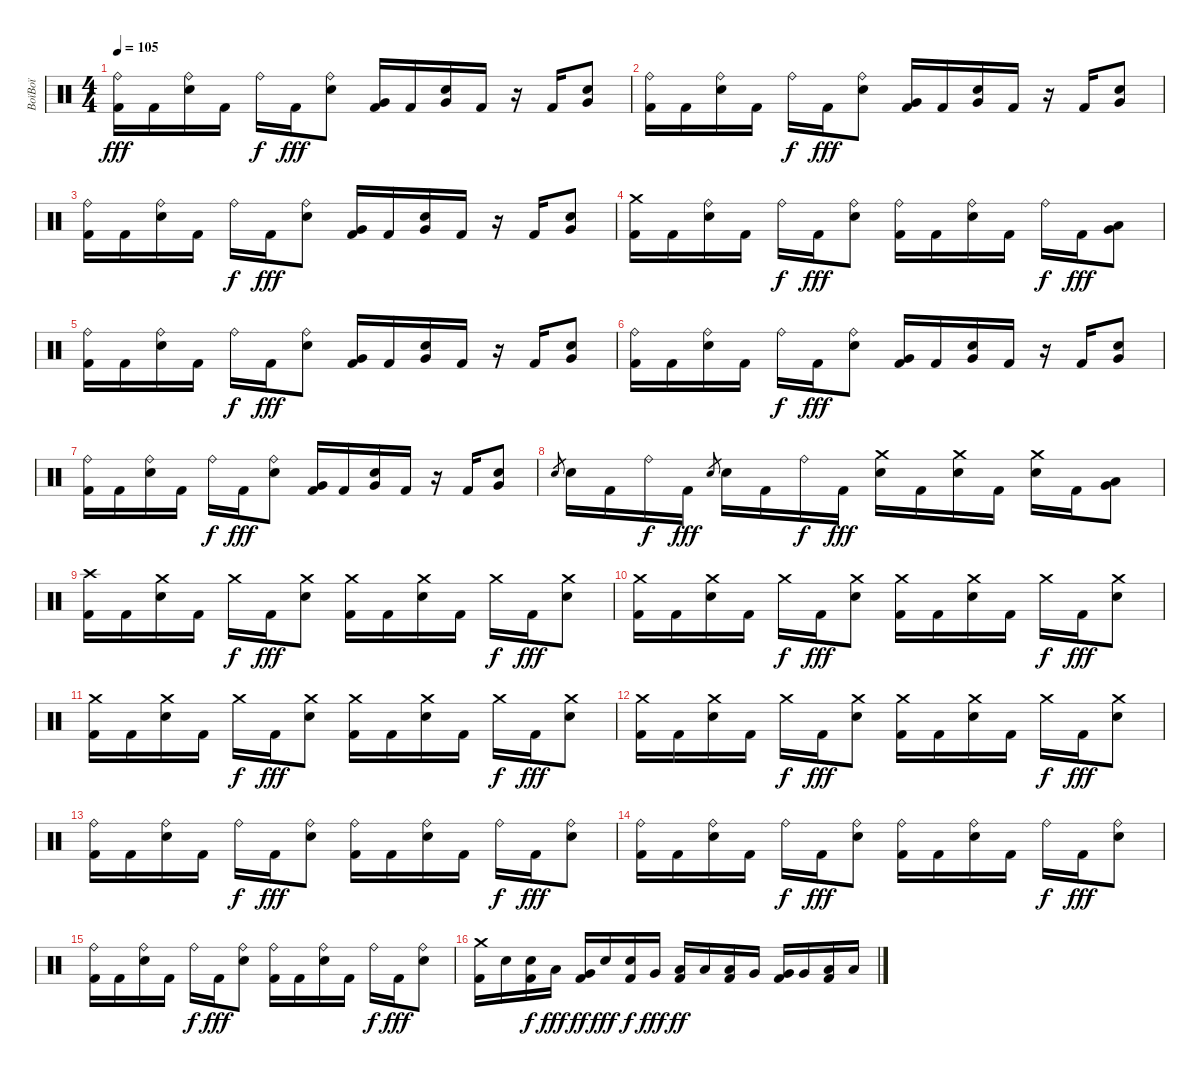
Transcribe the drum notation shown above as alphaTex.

\track ("BoïBoï" "BoïBoï") {instrument percussion}
\staff {score}
\articulation defaults
\ts (4 4)
\tempo 105
\clef neutral
\ks c
("Ride (bell)" "Kick (hit) 2").16{dy fff} "Kick (hit) 2".16 ("Ride (bell)" "Electric Snare (hit)").16 "Kick (hit) 2".16 "Ride (bell)".16{dy f} "Kick (hit) 2".16{dy fff} ("Ride (bell)" "Electric Snare (hit)").8 ("Very Low Tom (hit)" "Kick (hit) 2").16 "Kick (hit) 2".16 ("Electric Snare (hit)" "Very Low Tom (hit)").16 "Kick (hit) 2".16 r.16 "Kick (hit) 2".16 ("Electric Snare (hit)" "Very Low Tom (hit)").8 |
("Ride (bell)" "Kick (hit) 2").16 "Kick (hit) 2".16 ("Ride (bell)" "Electric Snare (hit)").16 "Kick (hit) 2".16 "Ride (bell)".16{dy f} "Kick (hit) 2".16{dy fff} ("Ride (bell)" "Electric Snare (hit)").8 ("Very Low Tom (hit)" "Kick (hit) 2").16 "Kick (hit) 2".16 ("Electric Snare (hit)" "Very Low Tom (hit)").16 "Kick (hit) 2".16 r.16 "Kick (hit) 2".16 ("Electric Snare (hit)" "Very Low Tom (hit)").8 |
("Ride (bell)" "Kick (hit) 2").16 "Kick (hit) 2".16 ("Ride (bell)" "Electric Snare (hit)").16 "Kick (hit) 2".16 "Ride (bell)".16{dy f} "Kick (hit) 2".16{dy fff} ("Ride (bell)" "Electric Snare (hit)").8 ("Very Low Tom (hit)" "Kick (hit) 2").16 "Kick (hit) 2".16 ("Electric Snare (hit)" "Very Low Tom (hit)").16 "Kick (hit) 2".16 r.16 "Kick (hit) 2".16 ("Electric Snare (hit)" "Very Low Tom (hit)").8 |
("Crash medium (hit)" "Kick (hit) 2").16 "Kick (hit) 2".16 ("Ride (bell)" "Electric Snare (hit)").16 "Kick (hit) 2".16 "Ride (bell)".16{dy f} "Kick (hit) 2".16{dy fff} ("Ride (bell)" "Electric Snare (hit)").8 ("Ride (bell)" "Kick (hit) 2").16 "Kick (hit) 2".16 ("Ride (bell)" "Electric Snare (hit)").16 "Kick (hit) 2".16 "Ride (bell)".16{dy f} "Kick (hit) 2".16{dy fff} ("Low Tom (hit)" "Very Low Tom (hit)").8 |
("Ride (bell)" "Kick (hit) 2").16 "Kick (hit) 2".16 ("Ride (bell)" "Electric Snare (hit)").16 "Kick (hit) 2".16 "Ride (bell)".16{dy f} "Kick (hit) 2".16{dy fff} ("Ride (bell)" "Electric Snare (hit)").8 ("Very Low Tom (hit)" "Kick (hit) 2").16 "Kick (hit) 2".16 ("Electric Snare (hit)" "Very Low Tom (hit)").16 "Kick (hit) 2".16 r.16 "Kick (hit) 2".16 ("Electric Snare (hit)" "Very Low Tom (hit)").8 |
("Ride (bell)" "Kick (hit) 2").16 "Kick (hit) 2".16 ("Ride (bell)" "Electric Snare (hit)").16 "Kick (hit) 2".16 "Ride (bell)".16{dy f} "Kick (hit) 2".16{dy fff} ("Ride (bell)" "Electric Snare (hit)").8 ("Very Low Tom (hit)" "Kick (hit) 2").16 "Kick (hit) 2".16 ("Electric Snare (hit)" "Very Low Tom (hit)").16 "Kick (hit) 2".16 r.16 "Kick (hit) 2".16 ("Electric Snare (hit)" "Very Low Tom (hit)").8 |
("Ride (bell)" "Kick (hit) 2").16 "Kick (hit) 2".16 ("Ride (bell)" "Electric Snare (hit)").16 "Kick (hit) 2".16 "Ride (bell)".16{dy f} "Kick (hit) 2".16{dy fff} ("Ride (bell)" "Electric Snare (hit)").8 ("Very Low Tom (hit)" "Kick (hit) 2").16 "Kick (hit) 2".16 ("Electric Snare (hit)" "Very Low Tom (hit)").16 "Kick (hit) 2".16 r.16 "Kick (hit) 2".16 ("Electric Snare (hit)" "Very Low Tom (hit)").8 |
"Electric Snare (hit)".8{gr} "Electric Snare (hit)".16 "Kick (hit) 2".16 "Ride (bell)".16{dy f} "Kick (hit) 2".16{dy fff} "Electric Snare (hit)".8{gr} "Electric Snare (hit)".16 "Kick (hit) 2".16 "Ride (bell)".16{dy f} "Kick (hit) 2".16{dy fff} ("Crash medium (hit)" "Electric Snare (hit)").16 "Kick (hit) 2".16 ("Crash medium (hit)" "Electric Snare (hit)").16 "Kick (hit) 2".16 ("Crash medium (hit)" "Electric Snare (hit)").16 "Kick (hit) 2".16 ("Low Tom (hit)" "Very Low Tom (hit)").8 |
("Crash high (hit)" "Kick (hit) 2").16 "Kick (hit) 2".16 ("Crash medium (hit)" "Electric Snare (hit)").16 "Kick (hit) 2".16 "Crash medium (hit)".16{dy f} "Kick (hit) 2".16{dy fff} ("Crash medium (hit)" "Electric Snare (hit)").8 ("Crash medium (hit)" "Kick (hit) 2").16 "Kick (hit) 2".16 ("Crash medium (hit)" "Electric Snare (hit)").16 "Kick (hit) 2".16 "Crash medium (hit)".16{dy f} "Kick (hit) 2".16{dy fff} ("Crash medium (hit)" "Electric Snare (hit)").8 |
("Crash medium (hit)" "Kick (hit) 2").16 "Kick (hit) 2".16 ("Crash medium (hit)" "Electric Snare (hit)").16 "Kick (hit) 2".16 "Crash medium (hit)".16{dy f} "Kick (hit) 2".16{dy fff} ("Crash medium (hit)" "Electric Snare (hit)").8 ("Crash medium (hit)" "Kick (hit) 2").16 "Kick (hit) 2".16 ("Crash medium (hit)" "Electric Snare (hit)").16 "Kick (hit) 2".16 "Crash medium (hit)".16{dy f} "Kick (hit) 2".16{dy fff} ("Crash medium (hit)" "Electric Snare (hit)").8 |
("Crash medium (hit)" "Kick (hit) 2").16 "Kick (hit) 2".16 ("Crash medium (hit)" "Electric Snare (hit)").16 "Kick (hit) 2".16 "Crash medium (hit)".16{dy f} "Kick (hit) 2".16{dy fff} ("Crash medium (hit)" "Electric Snare (hit)").8 ("Crash medium (hit)" "Kick (hit) 2").16 "Kick (hit) 2".16 ("Crash medium (hit)" "Electric Snare (hit)").16 "Kick (hit) 2".16 "Crash medium (hit)".16{dy f} "Kick (hit) 2".16{dy fff} ("Crash medium (hit)" "Electric Snare (hit)").8 |
("Crash medium (hit)" "Kick (hit) 2").16 "Kick (hit) 2".16 ("Crash medium (hit)" "Electric Snare (hit)").16 "Kick (hit) 2".16 "Crash medium (hit)".16{dy f} "Kick (hit) 2".16{dy fff} ("Crash medium (hit)" "Electric Snare (hit)").8 ("Crash medium (hit)" "Kick (hit) 2").16 "Kick (hit) 2".16 ("Crash medium (hit)" "Electric Snare (hit)").16 "Kick (hit) 2".16 "Crash medium (hit)".16{dy f} "Kick (hit) 2".16{dy fff} ("Crash medium (hit)" "Electric Snare (hit)").8 |
("Ride (bell)" "Kick (hit) 2").16 "Kick (hit) 2".16 ("Ride (bell)" "Electric Snare (hit)").16 "Kick (hit) 2".16 "Ride (bell)".16{dy f} "Kick (hit) 2".16{dy fff} ("Ride (bell)" "Electric Snare (hit)").8 ("Ride (bell)" "Kick (hit) 2").16 "Kick (hit) 2".16 ("Ride (bell)" "Electric Snare (hit)").16 "Kick (hit) 2".16 "Ride (bell)".16{dy f} "Kick (hit) 2".16{dy fff} ("Ride (bell)" "Electric Snare (hit)").8 |
("Ride (bell)" "Kick (hit) 2").16 "Kick (hit) 2".16 ("Ride (bell)" "Electric Snare (hit)").16 "Kick (hit) 2".16 "Ride (bell)".16{dy f} "Kick (hit) 2".16{dy fff} ("Ride (bell)" "Electric Snare (hit)").8 ("Ride (bell)" "Kick (hit) 2").16 "Kick (hit) 2".16 ("Ride (bell)" "Electric Snare (hit)").16 "Kick (hit) 2".16 "Ride (bell)".16{dy f} "Kick (hit) 2".16{dy fff} ("Ride (bell)" "Electric Snare (hit)").8 |
("Ride (bell)" "Kick (hit) 2").16 "Kick (hit) 2".16 ("Ride (bell)" "Electric Snare (hit)").16 "Kick (hit) 2".16 "Ride (bell)".16{dy f} "Kick (hit) 2".16{dy fff} ("Ride (bell)" "Electric Snare (hit)").8 ("Ride (bell)" "Kick (hit) 2").16 "Kick (hit) 2".16 ("Ride (bell)" "Electric Snare (hit)").16 "Kick (hit) 2".16 "Ride (bell)".16{dy f} "Kick (hit) 2".16{dy fff} ("Ride (bell)" "Electric Snare (hit)").8 |
("Crash medium (hit)" "Kick (hit) 2").16 "Electric Snare (hit)".16 ("Electric Snare (hit)" "Kick (hit) 2").16{dy f} "Low Tom (hit)".16{dy fff} ("Very Low Tom (hit)" "Kick (hit) 2").16{dy ff} "Electric Snare (hit)".16{dy fff} ("Electric Snare (hit)" "Kick (hit) 2").16{dy f} "Very Low Tom (hit)".16{dy fff} ("Low Tom (hit)" "Kick (hit) 2").16{dy ff} "Low Tom (hit)".16 ("Low Tom (hit)" "Kick (hit) 2").16 "Very Low Tom (hit)".16 ("Very Low Tom (hit)" "Kick (hit) 2").16 "Very Low Tom (hit)".16 ("Low Floor Tom (hit)" "Kick (hit) 2").16 "Low Floor Tom (hit)".16
